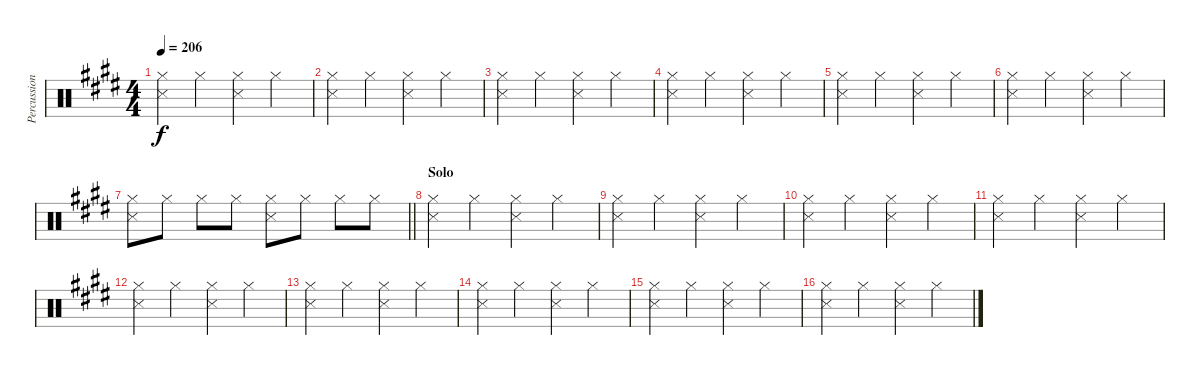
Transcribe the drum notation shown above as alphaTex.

\track ("Percussion" "Percussion") {instrument percussion}
\staff {score}
\articulation defaults
\ts (4 4)
\tempo 206
\clef neutral
\ks e
("Hi-Hat (closed)" "Snare (side stick) 3").4{dy f} "Hi-Hat (closed)".4 ("Hi-Hat (closed)" "Snare (side stick) 3").4 "Hi-Hat (closed)".4 |
("Hi-Hat (closed)" "Snare (side stick) 3").4 "Hi-Hat (closed)".4 ("Hi-Hat (closed)" "Snare (side stick) 3").4 "Hi-Hat (closed)".4 |
("Hi-Hat (closed)" "Snare (side stick) 3").4 "Hi-Hat (closed)".4 ("Hi-Hat (closed)" "Snare (side stick) 3").4 "Hi-Hat (closed)".4 |
("Hi-Hat (closed)" "Snare (side stick) 3").4 "Hi-Hat (closed)".4 ("Hi-Hat (closed)" "Snare (side stick) 3").4 "Hi-Hat (closed)".4 |
("Hi-Hat (closed)" "Snare (side stick) 3").4 "Hi-Hat (closed)".4 ("Hi-Hat (closed)" "Snare (side stick) 3").4 "Hi-Hat (closed)".4 |
("Hi-Hat (closed)" "Snare (side stick) 3").4 "Hi-Hat (closed)".4 ("Hi-Hat (closed)" "Snare (side stick) 3").4 "Hi-Hat (closed)".4 |
\barLineRight lightlight
("Hi-Hat (closed)" "Snare (side stick) 3").8 "Hi-Hat (closed)".8 "Hi-Hat (closed)".8 "Hi-Hat (closed)".8 ("Hi-Hat (closed)" "Snare (side stick) 3").8 "Hi-Hat (closed)".8 "Hi-Hat (closed)".8 "Hi-Hat (closed)".8 |
\section ("" "Solo")
("Hi-Hat (closed)" "Snare (side stick) 3").4 "Hi-Hat (closed)".4 ("Hi-Hat (closed)" "Snare (side stick) 3").4 "Hi-Hat (closed)".4 |
("Hi-Hat (closed)" "Snare (side stick) 3").4 "Hi-Hat (closed)".4 ("Hi-Hat (closed)" "Snare (side stick) 3").4 "Hi-Hat (closed)".4 |
("Hi-Hat (closed)" "Snare (side stick) 3").4 "Hi-Hat (closed)".4 ("Hi-Hat (closed)" "Snare (side stick) 3").4 "Hi-Hat (closed)".4 |
("Hi-Hat (closed)" "Snare (side stick) 3").4 "Hi-Hat (closed)".4 ("Hi-Hat (closed)" "Snare (side stick) 3").4 "Hi-Hat (closed)".4 |
("Hi-Hat (closed)" "Snare (side stick) 3").4 "Hi-Hat (closed)".4 ("Hi-Hat (closed)" "Snare (side stick) 3").4 "Hi-Hat (closed)".4 |
("Hi-Hat (closed)" "Snare (side stick) 3").4 "Hi-Hat (closed)".4 ("Hi-Hat (closed)" "Snare (side stick) 3").4 "Hi-Hat (closed)".4 |
("Hi-Hat (closed)" "Snare (side stick) 3").4 "Hi-Hat (closed)".4 ("Hi-Hat (closed)" "Snare (side stick) 3").4 "Hi-Hat (closed)".4 |
("Hi-Hat (closed)" "Snare (side stick) 3").4 "Hi-Hat (closed)".4 ("Hi-Hat (closed)" "Snare (side stick) 3").4 "Hi-Hat (closed)".4 |
("Hi-Hat (closed)" "Snare (side stick) 3").4 "Hi-Hat (closed)".4 ("Hi-Hat (closed)" "Snare (side stick) 3").4 "Hi-Hat (closed)".4
